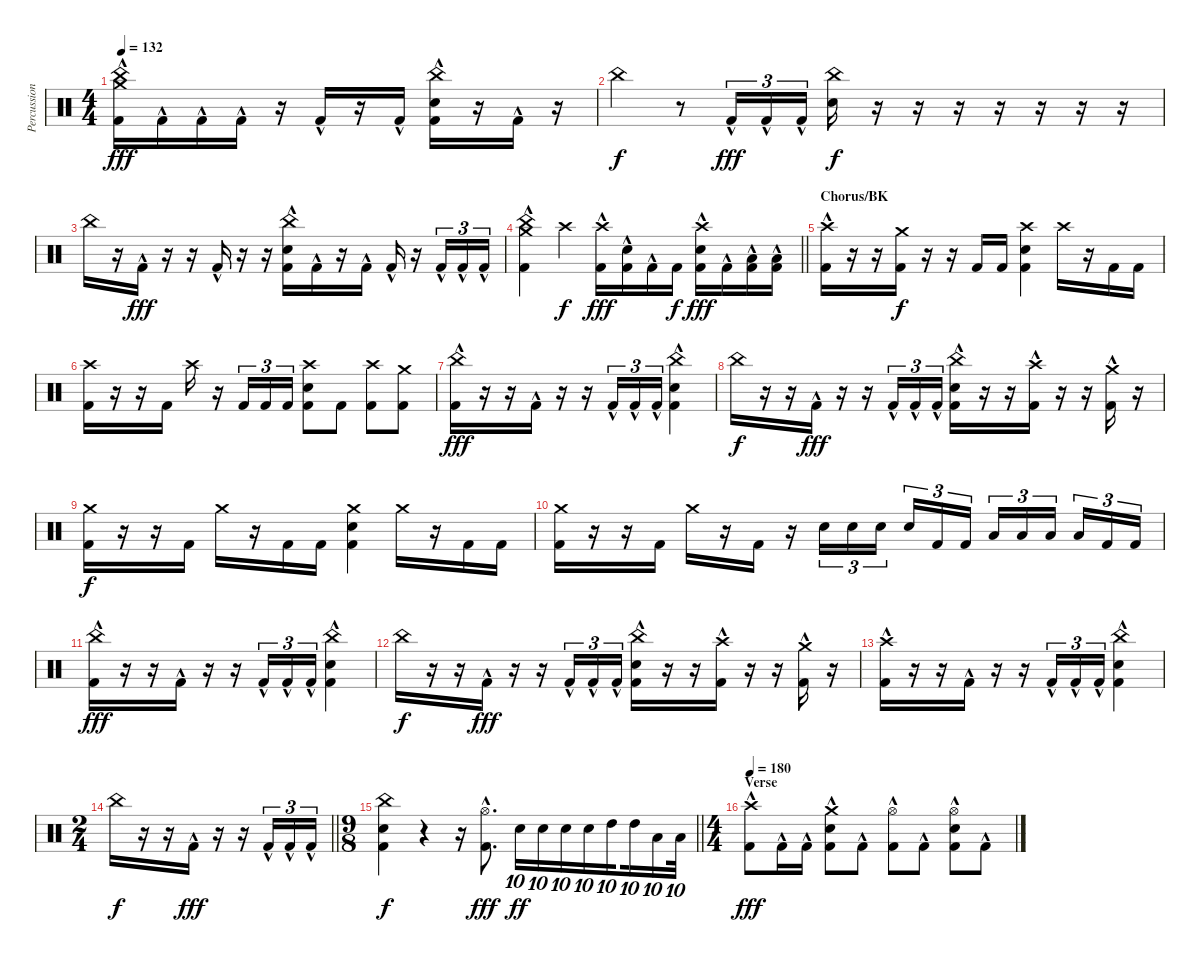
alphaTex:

\track ("Percussion" "Percussion") {instrument percussion}
\staff {score}
\articulation defaults
\ts (4 4)
\tempo 132
\clef neutral
\ks c
("Crash medium (hit)" "China (hit)" "Kick (hit) 2"{hac}).16{dy fff} "Kick (hit) 2"{hac}.16 "Kick (hit) 2"{hac}.16 "Kick (hit) 2"{hac}.16 r.16 "Kick (hit) 2"{hac}.16 r.16 "Kick (hit) 2"{hac}.16 ("Electric Snare (hit)" "China (hit)" "Kick (hit) 2"{hac}).16 r.16 "Kick (hit) 2"{hac}.16 r.16 |
"China (hit)".4{dy f} r.8 "Kick (hit) 2"{hac}.16{tu (3 2) dy fff} "Kick (hit) 2"{hac}.16{tu (3 2)} "Kick (hit) 2"{hac}.16{tu (3 2)} ("Electric Snare (hit)" "China (hit)").16{dy f} r.16 r.16 r.16 r.16 r.16 r.16 r.16 |
"China (hit)".16 r.16 "Kick (hit) 2"{hac}.16{dy fff} r.16 r.16 "Kick (hit) 2"{hac}.16 r.16 r.16 ("Electric Snare (hit)" "China (hit)" "Kick (hit) 2"{hac}).16 "Kick (hit) 2"{hac}.16 r.16 "Kick (hit) 2"{hac}.16 "Kick (hit) 2"{hac}.16 r.16 "Kick (hit) 2"{hac}.16{tu (3 2)} "Kick (hit) 2"{hac}.16{tu (3 2)} "Kick (hit) 2"{hac}.16{tu (3 2)} |
\barLineRight lightlight
("Crash medium (hit)" "China (hit)" "Kick (hit) 2"{hac}).4 "Crash high (hit)".4{dy f} ("Crash high (hit)" "Kick (hit) 2"{hac}).16{dy fff} ("Electric Snare (hit)" "Kick (hit) 2"{hac}).16 "Kick (hit) 2"{hac}.16 "Kick (hit) 2".16{dy f} ("Crash high (hit)" "Electric Snare (hit)" "Kick (hit) 2"{hac}).16{dy fff} "Kick (hit) 2"{hac}.16 ("Low Floor Tom (hit)" "Kick (hit) 2"{hac}).16 ("Low Floor Tom (hit)" "Kick (hit) 2"{hac}).16 |
\section ("" "Chorus/BK")
("Crash high (hit)" "Kick (hit) 2"{hac}).16 r.16 r.16 ("Crash medium (hit)" "Kick (hit) 2").16{dy f} r.16 r.16 "Kick (hit) 2".16 "Kick (hit) 2".16 ("Electric Snare (hit)" "Crash high (hit)" "Kick (hit) 2").4 "Crash high (hit)".16 r.16 "Kick (hit) 2".16 "Kick (hit) 2".16 |
("Crash high (hit)" "Kick (hit) 2").16 r.16 r.16 "Kick (hit) 2".16 "Crash high (hit)".16 r.16 "Kick (hit) 2".16{tu (3 2)} "Kick (hit) 2".16{tu (3 2)} "Kick (hit) 2".16{tu (3 2)} ("Electric Snare (hit)" "Crash high (hit)" "Kick (hit) 2").8 "Kick (hit) 2".8 ("Crash high (hit)" "Kick (hit) 2").8 ("Crash medium (hit)" "Kick (hit) 2").8 |
("China (hit)" "Kick (hit) 2"{hac}).16{dy fff} r.16 r.16 "Kick (hit) 2"{hac}.16 r.16 r.16 "Kick (hit) 2"{hac}.16{tu (3 2)} "Kick (hit) 2"{hac}.16{tu (3 2)} "Kick (hit) 2"{hac}.16{tu (3 2)} ("Electric Snare (hit)" "China (hit)" "Kick (hit) 2"{hac}).4 |
"China (hit)".16{dy f} r.16 r.16 "Kick (hit) 2"{hac}.16{dy fff} r.16 r.16 "Kick (hit) 2"{hac}.16{tu (3 2)} "Kick (hit) 2"{hac}.16{tu (3 2)} "Kick (hit) 2"{hac}.16{tu (3 2)} ("China (hit)" "Electric Snare (hit)" "Kick (hit) 2"{hac}).16 r.16 r.16 ("Crash high (hit)" "Kick (hit) 2"{hac}).16 r.16 r.16 ("Crash medium (hit)" "Kick (hit) 2"{hac}).16 r.16 |
("Crash medium (hit)" "Kick (hit) 2").16{dy f} r.16 r.16 "Kick (hit) 2".16 "Crash medium (hit)".16 r.16 "Kick (hit) 2".16 "Kick (hit) 2".16 ("Electric Snare (hit)" "Crash medium (hit)" "Kick (hit) 2").4 "Crash medium (hit)".16 r.16 "Kick (hit) 2".16 "Kick (hit) 2".16 |
("Crash medium (hit)" "Kick (hit) 2").16 r.16 r.16 "Kick (hit) 2".16 "Crash medium (hit)".16 r.16 "Kick (hit) 2".16 r.16 "Electric Snare (hit)".16{tu (3 2)} "Electric Snare (hit)".16{tu (3 2)} "Electric Snare (hit)".16{tu (3 2) beam splitsecondary} "Electric Snare (hit)".16{tu (3 2)} "Kick (hit) 2".16{tu (3 2)} "Kick (hit) 2".16{tu (3 2)} "Low Tom (hit)".16{tu (3 2)} "Low Tom (hit)".16{tu (3 2)} "Low Tom (hit)".16{tu (3 2) beam splitsecondary} "Low Tom (hit)".16{tu (3 2)} "Kick (hit) 2".16{tu (3 2)} "Kick (hit) 2".16{tu (3 2)} |
("China (hit)" "Kick (hit) 2"{hac}).16{dy fff} r.16 r.16 "Kick (hit) 2"{hac}.16 r.16 r.16 "Kick (hit) 2"{hac}.16{tu (3 2)} "Kick (hit) 2"{hac}.16{tu (3 2)} "Kick (hit) 2"{hac}.16{tu (3 2)} ("Electric Snare (hit)" "China (hit)" "Kick (hit) 2"{hac}).4 |
"China (hit)".16{dy f} r.16 r.16 "Kick (hit) 2"{hac}.16{dy fff} r.16 r.16 "Kick (hit) 2"{hac}.16{tu (3 2)} "Kick (hit) 2"{hac}.16{tu (3 2)} "Kick (hit) 2"{hac}.16{tu (3 2)} ("China (hit)" "Electric Snare (hit)" "Kick (hit) 2"{hac}).16 r.16 r.16 ("Crash high (hit)" "Kick (hit) 2"{hac}).16 r.16 r.16 ("Crash medium (hit)" "Kick (hit) 2"{hac}).16 r.16 |
("Crash high (hit)" "Kick (hit) 2"{hac}).16 r.16 r.16 "Kick (hit) 2"{hac}.16 r.16 r.16 "Kick (hit) 2"{hac}.16{tu (3 2)} "Kick (hit) 2"{hac}.16{tu (3 2)} "Kick (hit) 2"{hac}.16{tu (3 2)} ("Electric Snare (hit)" "China (hit)" "Kick (hit) 2"{hac}).4 |
\ts (2 4)
\barLineRight lightlight "China (hit)".16{dy f}
r.16 r.16 "Kick (hit) 2"{hac}.16{dy fff} r.16 r.16 "Kick (hit) 2"{hac}.16{tu (3 2)} "Kick (hit) 2"{hac}.16{tu (3 2)} "Kick (hit) 2"{hac}.16{tu (3 2)} |
\ts (9 8)
\barLineRight lightlight
("China (hit)" "Electric Snare (hit)" "Kick (hit) 2").4{dy f} r.4 r.16 ("Hi-Hat (open)"{hac} "Kick (hit) 2"{hac}).8{d dy fff} "Electric Snare (hit)".16{tu (10 8) dy ff} "Electric Snare (hit)".16{tu (10 8)} "Electric Snare (hit)".16{tu (10 8)} "Electric Snare (hit)".16{tu (10 8)} "High Tom (hit)".16{tu (10 8) beam splitsecondary} "High Tom (hit)".16{tu (10 8)} "Low Tom (hit)".16{tu (10 8)} "Low Tom (hit)".32{tu (10 8)} |
\ts (4 4)
\section ("" "Verse")
\tempo 180
("Crash high (hit)" "Kick (hit) 2"{hac}).8{dy fff} "Kick (hit) 2"{hac}.16 "Kick (hit) 2"{hac}.16 ("Crash medium (hit)" "Electric Snare (hit)" "Kick (hit) 2"{hac}).8 "Kick (hit) 2"{hac}.8 ("Hi-Hat (open)" "Kick (hit) 2"{hac}).8 "Kick (hit) 2"{hac}.8 ("Hi-Hat (open)" "Electric Snare (hit)" "Kick (hit) 2"{hac}).8 "Kick (hit) 2"{hac}.8
